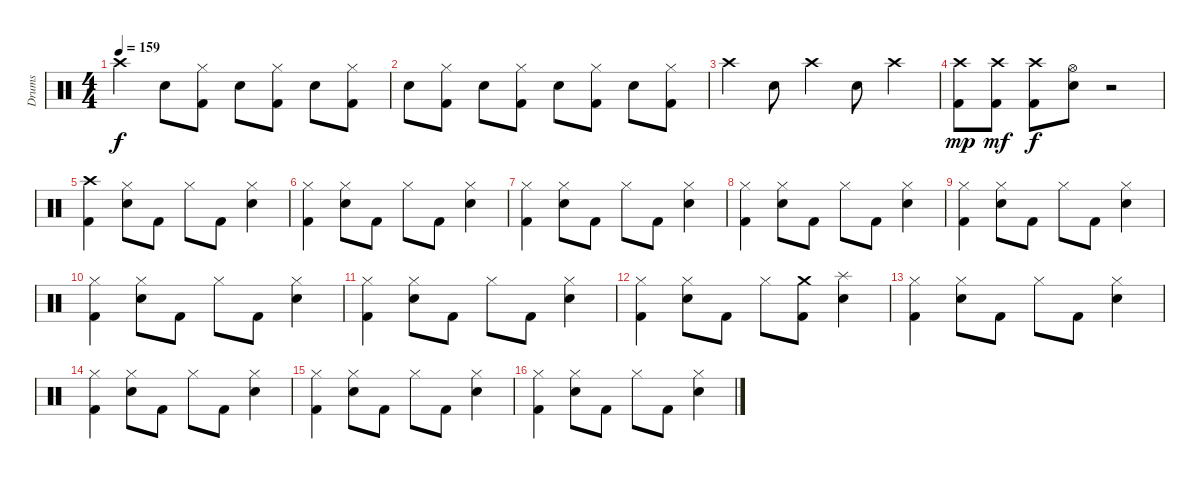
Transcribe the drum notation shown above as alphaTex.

\track ("Drums" "Drums") {instrument percussion}
\staff {score}
\articulation defaults
\ts (4 4)
\tempo 159
\clef neutral
\ks c "Crash high (hit)".4{dy f} "Electric Snare (hit)".8
("Kick (hit) 2" "Hi-Hat (closed)").8 "Electric Snare (hit)".8 ("Kick (hit) 2" "Hi-Hat (closed)").8 "Electric Snare (hit)".8 ("Kick (hit) 2" "Hi-Hat (closed)").8 |
"Electric Snare (hit)".8 ("Kick (hit) 2" "Hi-Hat (closed)").8 "Electric Snare (hit)".8 ("Kick (hit) 2" "Hi-Hat (closed)").8 "Electric Snare (hit)".8 ("Kick (hit) 2" "Hi-Hat (closed)").8 "Electric Snare (hit)".8 ("Kick (hit) 2" "Hi-Hat (closed)").8 |
"Crash high (hit)".4 "Electric Snare (hit)".8 "Crash high (hit)".4 "Electric Snare (hit)".8 "Crash high (hit)".4 |
("Crash high (hit)" "Kick (hit) 2").8{dy mp} ("Crash high (hit)" "Kick (hit) 2").8{dy mf} ("Crash high (hit)" "Kick (hit) 2").8{dy f} ("Electric Snare (hit)" "Hi-Hat (open)").8 r.2 |
("Crash high (hit)" "Kick (hit) 2").4 ("Hi-Hat (closed)" "Electric Snare (hit)").8 "Kick (hit) 2".8 "Hi-Hat (closed)".8 "Kick (hit) 2".8 ("Hi-Hat (closed)" "Electric Snare (hit)").4 |
("Hi-Hat (closed)" "Kick (hit) 2").4 ("Hi-Hat (closed)" "Electric Snare (hit)").8 "Kick (hit) 2".8 "Hi-Hat (closed)".8 "Kick (hit) 2".8 ("Hi-Hat (closed)" "Electric Snare (hit)").4 |
("Hi-Hat (closed)" "Kick (hit) 2").4 ("Hi-Hat (closed)" "Electric Snare (hit)").8 "Kick (hit) 2".8 "Hi-Hat (closed)".8 "Kick (hit) 2".8 ("Hi-Hat (closed)" "Electric Snare (hit)").4 |
("Hi-Hat (closed)" "Kick (hit) 2").4 ("Hi-Hat (closed)" "Electric Snare (hit)").8 "Kick (hit) 2".8 "Hi-Hat (closed)".8 "Kick (hit) 2".8 ("Hi-Hat (closed)" "Electric Snare (hit)").4 |
("Hi-Hat (closed)" "Kick (hit) 2").4 ("Hi-Hat (closed)" "Electric Snare (hit)").8 "Kick (hit) 2".8 "Hi-Hat (closed)".8 "Kick (hit) 2".8 ("Hi-Hat (closed)" "Electric Snare (hit)").4 |
("Hi-Hat (closed)" "Kick (hit) 2").4 ("Hi-Hat (closed)" "Electric Snare (hit)").8 "Kick (hit) 2".8 "Hi-Hat (closed)".8 "Kick (hit) 2".8 ("Hi-Hat (closed)" "Electric Snare (hit)").4 |
("Hi-Hat (closed)" "Kick (hit) 2").4 ("Hi-Hat (closed)" "Electric Snare (hit)").8 "Kick (hit) 2".8 "Hi-Hat (closed)".8 "Kick (hit) 2".8 ("Hi-Hat (closed)" "Electric Snare (hit)").4 |
("Hi-Hat (closed)" "Kick (hit) 2").4 ("Hi-Hat (closed)" "Electric Snare (hit)").8 "Kick (hit) 2".8 "Hi-Hat (closed)".8 ("Crash medium (hit)" "Kick (hit) 2").8 ("Splash (hit)" "Electric Snare (hit)").4 |
("Hi-Hat (closed)" "Kick (hit) 2").4 ("Hi-Hat (closed)" "Electric Snare (hit)").8 "Kick (hit) 2".8 "Hi-Hat (closed)".8 "Kick (hit) 2".8 ("Hi-Hat (closed)" "Electric Snare (hit)").4 |
("Hi-Hat (closed)" "Kick (hit) 2").4 ("Hi-Hat (closed)" "Electric Snare (hit)").8 "Kick (hit) 2".8 "Hi-Hat (closed)".8 "Kick (hit) 2".8 ("Hi-Hat (closed)" "Electric Snare (hit)").4 |
("Hi-Hat (closed)" "Kick (hit) 2").4 ("Hi-Hat (closed)" "Electric Snare (hit)").8 "Kick (hit) 2".8 "Hi-Hat (closed)".8 "Kick (hit) 2".8 ("Hi-Hat (closed)" "Electric Snare (hit)").4 |
("Hi-Hat (closed)" "Kick (hit) 2").4 ("Hi-Hat (closed)" "Electric Snare (hit)").8 "Kick (hit) 2".8 "Hi-Hat (closed)".8 "Kick (hit) 2".8 ("Hi-Hat (closed)" "Electric Snare (hit)").4
